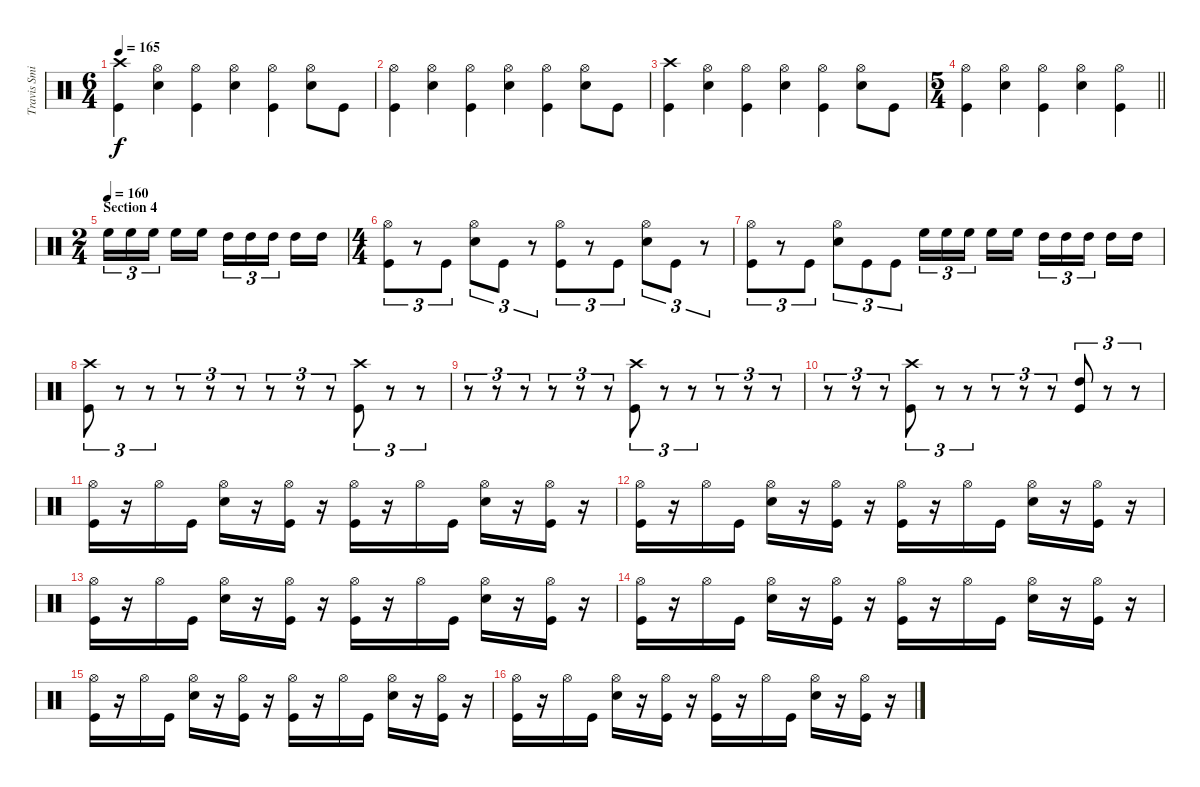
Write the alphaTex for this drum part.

\track ("Travis Smith" "Travis Smi") {instrument percussion}
\staff {score}
\articulation defaults
\ts (6 4)
\tempo 165
\clef neutral
\ks c
("Crash high (hit)" "Kick (hit)").4{dy f} ("Hi-Hat (open)" "Electric Snare (hit)").4 ("Hi-Hat (open)" "Kick (hit)").4 ("Hi-Hat (open)" "Electric Snare (hit)").4 ("Hi-Hat (open)" "Kick (hit)").4 ("Hi-Hat (open)" "Electric Snare (hit)").8 "Kick (hit)".8 |
("Hi-Hat (open)" "Kick (hit)").4 ("Hi-Hat (open)" "Electric Snare (hit)").4 ("Hi-Hat (open)" "Kick (hit)").4 ("Hi-Hat (open)" "Electric Snare (hit)").4 ("Hi-Hat (open)" "Kick (hit)").4 ("Hi-Hat (open)" "Electric Snare (hit)").8 "Kick (hit)".8 |
("Crash high (hit)" "Kick (hit)").4 ("Hi-Hat (open)" "Electric Snare (hit)").4 ("Hi-Hat (open)" "Kick (hit)").4 ("Hi-Hat (open)" "Electric Snare (hit)").4 ("Hi-Hat (open)" "Kick (hit)").4 ("Hi-Hat (open)" "Electric Snare (hit)").8 "Kick (hit)".8 |
\ts (5 4)
\barLineRight lightlight
("Hi-Hat (open)" "Kick (hit)").4 ("Hi-Hat (open)" "Electric Snare (hit)").4 ("Hi-Hat (open)" "Kick (hit)").4 ("Hi-Hat (open)" "Electric Snare (hit)").4 ("Hi-Hat (open)" "Kick (hit)").4 |
\ts (2 4)
\section ("" "Section 4")
\tempo (160)
"High Floor Tom (hit)".16{tu (3 2)} "High Floor Tom (hit)".16{tu (3 2)} "High Floor Tom (hit)".16{tu (3 2) beam splitsecondary} "High Floor Tom (hit)".16 "High Floor Tom (hit)".16 "High Tom (hit)".16{tu (3 2)} "High Tom (hit)".16{tu (3 2)} "High Tom (hit)".16{tu (3 2) beam splitsecondary} "High Tom (hit)".16 "High Tom (hit)".16 |
\ts (4 4)
("Hi-Hat (open)" "Kick (hit)").8{tu (3 2)} r.8{tu (3 2)} "Kick (hit)".8{tu (3 2)} ("Hi-Hat (open)" "Electric Snare (hit)").8{tu (3 2)} "Kick (hit)".8{tu (3 2)} r.8{tu (3 2)} ("Hi-Hat (open)" "Kick (hit)").8{tu (3 2)} r.8{tu (3 2)} "Kick (hit)".8{tu (3 2)} ("Hi-Hat (open)" "Electric Snare (hit)").8{tu (3 2)} "Kick (hit)".8{tu (3 2)} r.8{tu (3 2)} |
("Hi-Hat (open)" "Kick (hit)").8{tu (3 2)} r.8{tu (3 2)} "Kick (hit)".8{tu (3 2)} ("Hi-Hat (open)" "Electric Snare (hit)").8{tu (3 2)} "Kick (hit)".8{tu (3 2)} "Kick (hit)".8{tu (3 2)} "High Floor Tom (hit)".16{tu (3 2)} "High Floor Tom (hit)".16{tu (3 2)} "High Floor Tom (hit)".16{tu (3 2) beam splitsecondary} "High Floor Tom (hit)".16 "High Floor Tom (hit)".16 "High Tom (hit)".16{tu (3 2)} "High Tom (hit)".16{tu (3 2)} "High Tom (hit)".16{tu (3 2) beam splitsecondary} "High Tom (hit)".16 "High Tom (hit)".16 |
("Crash high (hit)" "Kick (hit)").8{tu (3 2)} r.8{tu (3 2)} r.8{tu (3 2)} r.8{tu (3 2)} r.8{tu (3 2)} r.8{tu (3 2)} r.8{tu (3 2)} r.8{tu (3 2)} r.8{tu (3 2)} ("Crash high (hit)" "Kick (hit)").8{tu (3 2)} r.8{tu (3 2)} r.8{tu (3 2)} |
r.8{tu (3 2)} r.8{tu (3 2)} r.8{tu (3 2)} r.8{tu (3 2)} r.8{tu (3 2)} r.8{tu (3 2)} ("Crash high (hit)" "Kick (hit)").8{tu (3 2)} r.8{tu (3 2)} r.8{tu (3 2)} r.8{tu (3 2)} r.8{tu (3 2)} r.8{tu (3 2)} |
r.8{tu (3 2)} r.8{tu (3 2)} r.8{tu (3 2)} ("Crash high (hit)" "Kick (hit)").8{tu (3 2)} r.8{tu (3 2)} r.8{tu (3 2)} r.8{tu (3 2)} r.8{tu (3 2)} r.8{tu (3 2)} ("High Tom (hit)" "Kick (hit)").8{tu (3 2)} r.8{tu (3 2)} r.8{tu (3 2)} |
("Hi-Hat (open)" "Kick (hit)").16 r.16 "Hi-Hat (open)".16 "Kick (hit)".16 ("Hi-Hat (open)" "Electric Snare (hit)").16 r.16 ("Hi-Hat (open)" "Kick (hit)").16 r.16 ("Hi-Hat (open)" "Kick (hit)").16 r.16 "Hi-Hat (open)".16 "Kick (hit)".16 ("Hi-Hat (open)" "Electric Snare (hit)").16 r.16 ("Hi-Hat (open)" "Kick (hit)").16 r.16 |
("Hi-Hat (open)" "Kick (hit)").16 r.16 "Hi-Hat (open)".16 "Kick (hit)".16 ("Hi-Hat (open)" "Electric Snare (hit)").16 r.16 ("Hi-Hat (open)" "Kick (hit)").16 r.16 ("Hi-Hat (open)" "Kick (hit)").16 r.16 "Hi-Hat (open)".16 "Kick (hit)".16 ("Hi-Hat (open)" "Electric Snare (hit)").16 r.16 ("Hi-Hat (open)" "Kick (hit)").16 r.16 |
("Hi-Hat (open)" "Kick (hit)").16 r.16 "Hi-Hat (open)".16 "Kick (hit)".16 ("Hi-Hat (open)" "Electric Snare (hit)").16 r.16 ("Hi-Hat (open)" "Kick (hit)").16 r.16 ("Hi-Hat (open)" "Kick (hit)").16 r.16 "Hi-Hat (open)".16 "Kick (hit)".16 ("Hi-Hat (open)" "Electric Snare (hit)").16 r.16 ("Hi-Hat (open)" "Kick (hit)").16 r.16 |
("Hi-Hat (open)" "Kick (hit)").16 r.16 "Hi-Hat (open)".16 "Kick (hit)".16 ("Hi-Hat (open)" "Electric Snare (hit)").16 r.16 ("Hi-Hat (open)" "Kick (hit)").16 r.16 ("Hi-Hat (open)" "Kick (hit)").16 r.16 "Hi-Hat (open)".16 "Kick (hit)".16 ("Hi-Hat (open)" "Electric Snare (hit)").16 r.16 ("Hi-Hat (open)" "Kick (hit)").16 r.16 |
("Hi-Hat (open)" "Kick (hit)").16 r.16 "Hi-Hat (open)".16 "Kick (hit)".16 ("Hi-Hat (open)" "Electric Snare (hit)").16 r.16 ("Hi-Hat (open)" "Kick (hit)").16 r.16 ("Hi-Hat (open)" "Kick (hit)").16 r.16 "Hi-Hat (open)".16 "Kick (hit)".16 ("Hi-Hat (open)" "Electric Snare (hit)").16 r.16 ("Hi-Hat (open)" "Kick (hit)").16 r.16 |
("Hi-Hat (open)" "Kick (hit)").16 r.16 "Hi-Hat (open)".16 "Kick (hit)".16 ("Hi-Hat (open)" "Electric Snare (hit)").16 r.16 ("Hi-Hat (open)" "Kick (hit)").16 r.16 ("Hi-Hat (open)" "Kick (hit)").16 r.16 "Hi-Hat (open)".16 "Kick (hit)".16 ("Hi-Hat (open)" "Electric Snare (hit)").16 r.16 ("Hi-Hat (open)" "Kick (hit)").16 r.16
